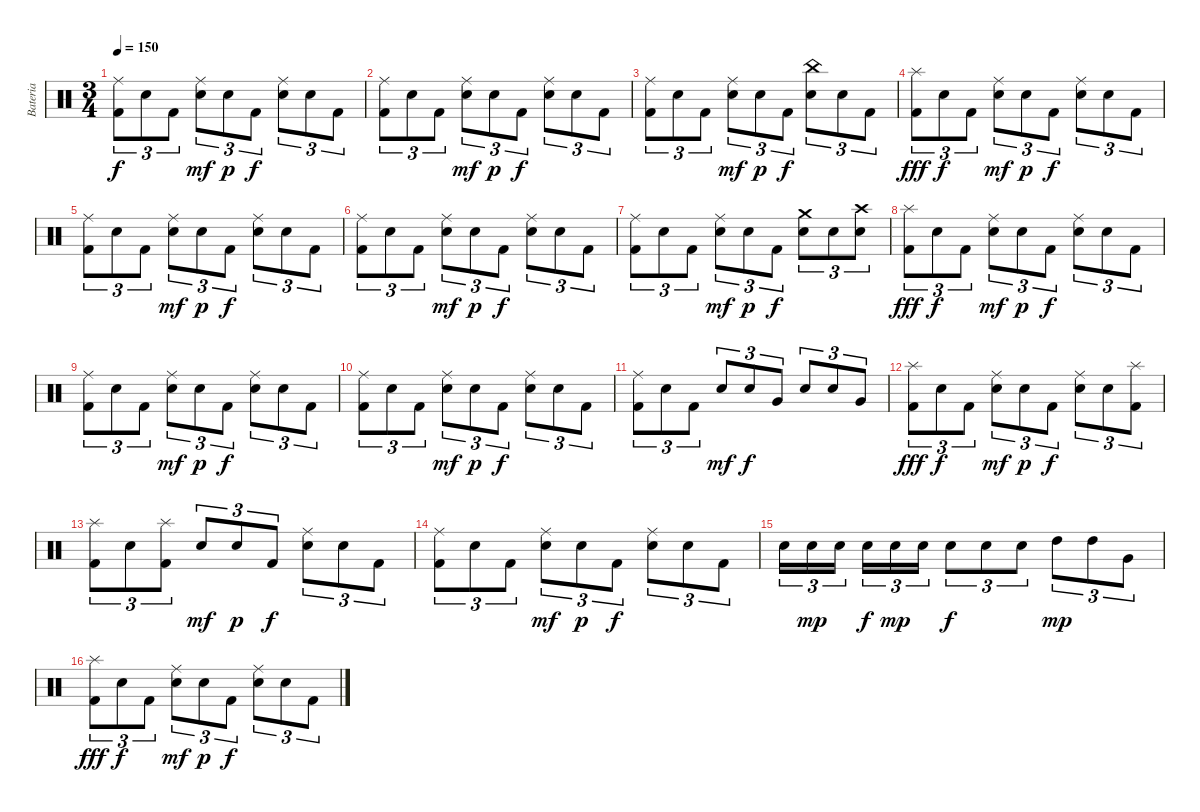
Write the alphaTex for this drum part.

\track ("Bateria" "Bateria") {instrument percussion}
\staff {score}
\articulation defaults
\ts (3 4)
\tempo 150
\clef neutral
\ks c
("Ride (middle)" "Kick (hit) 2").8{tu (3 2) dy f} "Snare (hit)".8{tu (3 2)} "Kick (hit) 2".8{tu (3 2)} ("Ride (middle)" "Electric Snare (hit)").8{tu (3 2) dy mf} "Electric Snare (hit)".8{tu (3 2) dy p} "Kick (hit) 2".8{tu (3 2) dy f} ("Ride (middle)" "Electric Snare (hit)").8{tu (3 2)} "Snare (hit)".8{tu (3 2)} "Kick (hit) 2".8{tu (3 2)} |
("Ride (middle)" "Kick (hit) 2").8{tu (3 2)} "Snare (hit)".8{tu (3 2)} "Kick (hit) 2".8{tu (3 2)} ("Ride (middle)" "Electric Snare (hit)").8{tu (3 2) dy mf} "Electric Snare (hit)".8{tu (3 2) dy p} "Kick (hit) 2".8{tu (3 2) dy f} ("Ride (middle)" "Electric Snare (hit)").8{tu (3 2)} "Snare (hit)".8{tu (3 2)} "Kick (hit) 2".8{tu (3 2)} |
("Ride (middle)" "Kick (hit) 2").8{tu (3 2)} "Snare (hit)".8{tu (3 2)} "Kick (hit) 2".8{tu (3 2)} ("Ride (middle)" "Electric Snare (hit)").8{tu (3 2) dy mf} "Electric Snare (hit)".8{tu (3 2) dy p} "Kick (hit) 2".8{tu (3 2) dy f} ("China (hit)" "Electric Snare (hit)").8{tu (3 2)} "Snare (hit)".8{tu (3 2)} "Kick (hit) 2".8{tu (3 2)} |
("Splash (hit)" "Kick (hit) 2").8{tu (3 2) dy fff} "Snare (hit)".8{tu (3 2) dy f} "Kick (hit) 2".8{tu (3 2)} ("Ride (middle)" "Electric Snare (hit)").8{tu (3 2) dy mf} "Electric Snare (hit)".8{tu (3 2) dy p} "Kick (hit) 2".8{tu (3 2) dy f} ("Ride (middle)" "Electric Snare (hit)").8{tu (3 2)} "Snare (hit)".8{tu (3 2)} "Kick (hit) 2".8{tu (3 2)} |
("Ride (middle)" "Kick (hit) 2").8{tu (3 2)} "Snare (hit)".8{tu (3 2)} "Kick (hit) 2".8{tu (3 2)} ("Ride (middle)" "Electric Snare (hit)").8{tu (3 2) dy mf} "Electric Snare (hit)".8{tu (3 2) dy p} "Kick (hit) 2".8{tu (3 2) dy f} ("Ride (middle)" "Electric Snare (hit)").8{tu (3 2)} "Snare (hit)".8{tu (3 2)} "Kick (hit) 2".8{tu (3 2)} |
("Ride (middle)" "Kick (hit) 2").8{tu (3 2)} "Snare (hit)".8{tu (3 2)} "Kick (hit) 2".8{tu (3 2)} ("Ride (middle)" "Electric Snare (hit)").8{tu (3 2) dy mf} "Electric Snare (hit)".8{tu (3 2) dy p} "Kick (hit) 2".8{tu (3 2) dy f} ("Ride (middle)" "Electric Snare (hit)").8{tu (3 2)} "Snare (hit)".8{tu (3 2)} "Kick (hit) 2".8{tu (3 2)} |
("Ride (middle)" "Kick (hit) 2").8{tu (3 2)} "Snare (hit)".8{tu (3 2)} "Kick (hit) 2".8{tu (3 2)} ("Ride (middle)" "Electric Snare (hit)").8{tu (3 2) dy mf} "Electric Snare (hit)".8{tu (3 2) dy p} "Kick (hit) 2".8{tu (3 2) dy f} ("Crash medium (hit)" "Electric Snare (hit)").8{tu (3 2)} "Snare (hit)".8{tu (3 2)} ("Crash high (hit)" "Electric Snare (hit)").8{tu (3 2)} |
("Splash (hit)" "Kick (hit) 2").8{tu (3 2) dy fff} "Snare (hit)".8{tu (3 2) dy f} "Kick (hit) 2".8{tu (3 2)} ("Ride (middle)" "Electric Snare (hit)").8{tu (3 2) dy mf} "Electric Snare (hit)".8{tu (3 2) dy p} "Kick (hit) 2".8{tu (3 2) dy f} ("Ride (middle)" "Electric Snare (hit)").8{tu (3 2)} "Snare (hit)".8{tu (3 2)} "Kick (hit) 2".8{tu (3 2)} |
("Ride (middle)" "Kick (hit) 2").8{tu (3 2)} "Snare (hit)".8{tu (3 2)} "Kick (hit) 2".8{tu (3 2)} ("Ride (middle)" "Electric Snare (hit)").8{tu (3 2) dy mf} "Electric Snare (hit)".8{tu (3 2) dy p} "Kick (hit) 2".8{tu (3 2) dy f} ("Ride (middle)" "Electric Snare (hit)").8{tu (3 2)} "Snare (hit)".8{tu (3 2)} "Kick (hit) 2".8{tu (3 2)} |
("Ride (middle)" "Kick (hit) 2").8{tu (3 2)} "Snare (hit)".8{tu (3 2)} "Kick (hit) 2".8{tu (3 2)} ("Ride (middle)" "Electric Snare (hit)").8{tu (3 2) dy mf} "Electric Snare (hit)".8{tu (3 2) dy p} "Kick (hit) 2".8{tu (3 2) dy f} ("Ride (middle)" "Electric Snare (hit)").8{tu (3 2)} "Snare (hit)".8{tu (3 2)} "Kick (hit) 2".8{tu (3 2)} |
("Ride (middle)" "Kick (hit) 2").8{tu (3 2)} "Snare (hit)".8{tu (3 2)} "Kick (hit) 2".8{tu (3 2)} "Electric Snare (hit)".8{tu (3 2) dy mf} "Electric Snare (hit)".8{tu (3 2) dy f} "Very Low Tom (hit)".8{tu (3 2)} "Electric Snare (hit)".8{tu (3 2)} "Snare (hit)".8{tu (3 2)} "Very Low Tom (hit)".8{tu (3 2)} |
("Splash (hit)" "Kick (hit) 2").8{tu (3 2) dy fff} "Snare (hit)".8{tu (3 2) dy f} "Kick (hit) 2".8{tu (3 2)} ("Ride (middle)" "Electric Snare (hit)").8{tu (3 2) dy mf} "Electric Snare (hit)".8{tu (3 2) dy p} "Kick (hit) 2".8{tu (3 2) dy f} ("Ride (middle)" "Electric Snare (hit)").8{tu (3 2)} "Snare (hit)".8{tu (3 2)} ("Splash (hit)" "Kick (hit) 2").8{tu (3 2)} |
("Splash (hit)" "Kick (hit) 2").8{tu (3 2)} "Snare (hit)".8{tu (3 2)} ("Splash (hit)" "Kick (hit) 2").8{tu (3 2)} "Electric Snare (hit)".8{tu (3 2) dy mf} "Electric Snare (hit)".8{tu (3 2) dy p} "Kick (hit) 2".8{tu (3 2) dy f} ("Ride (middle)" "Electric Snare (hit)").8{tu (3 2)} "Snare (hit)".8{tu (3 2)} "Kick (hit) 2".8{tu (3 2)} |
("Ride (middle)" "Kick (hit) 2").8{tu (3 2)} "Snare (hit)".8{tu (3 2)} "Kick (hit) 2".8{tu (3 2)} ("Ride (middle)" "Electric Snare (hit)").8{tu (3 2) dy mf} "Electric Snare (hit)".8{tu (3 2) dy p} "Kick (hit) 2".8{tu (3 2) dy f} ("Ride (middle)" "Electric Snare (hit)").8{tu (3 2)} "Snare (hit)".8{tu (3 2)} "Kick (hit) 2".8{tu (3 2)} |
"Electric Snare (hit)".16{tu (3 2)} "Electric Snare (hit)".16{tu (3 2) dy mp} "Electric Snare (hit)".16{tu (3 2) beam splitsecondary} "Electric Snare (hit)".16{tu (3 2) dy f} "Electric Snare (hit)".16{tu (3 2) dy mp} "Electric Snare (hit)".16{tu (3 2)} "Electric Snare (hit)".8{tu (3 2) dy f} "Electric Snare (hit)".8{tu (3 2)} "Electric Snare (hit)".8{tu (3 2)} "High Tom (hit)".8{tu (3 2) dy mp} "High Tom (hit)".8{tu (3 2)} "Very Low Tom (hit)".8{tu (3 2)} |
("Splash (hit)" "Kick (hit) 2").8{tu (3 2) dy fff} "Snare (hit)".8{tu (3 2) dy f} "Kick (hit) 2".8{tu (3 2)} ("Ride (middle)" "Electric Snare (hit)").8{tu (3 2) dy mf} "Electric Snare (hit)".8{tu (3 2) dy p} "Kick (hit) 2".8{tu (3 2) dy f} ("Ride (middle)" "Electric Snare (hit)").8{tu (3 2)} "Snare (hit)".8{tu (3 2)} "Kick (hit) 2".8{tu (3 2)}
